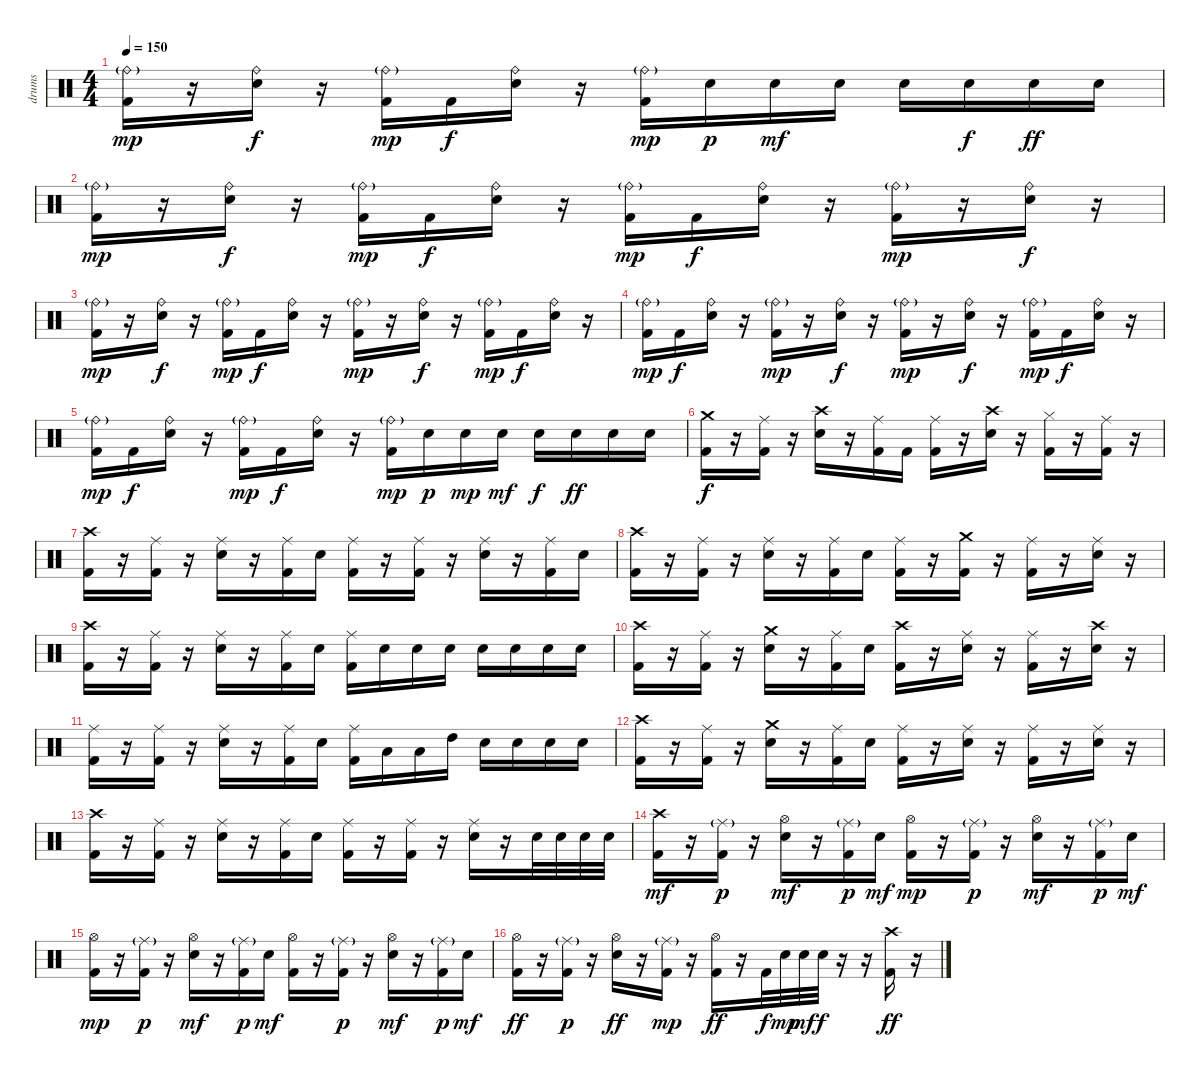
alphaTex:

\track ("drums" "drums") {instrument percussion}
\staff {score}
\articulation defaults
\ts (4 4)
\tempo 150
\clef neutral
\ks c
("Ride (bell)"{g} "Kick (hit) 2").16{dy mp} r.16 ("Ride (bell)" "Electric Snare (hit)").16{dy f} r.16 ("Ride (bell)"{g} "Kick (hit) 2").16{dy mp} "Kick (hit) 2".16{dy f} ("Ride (bell)" "Electric Snare (hit)").16 r.16 ("Ride (bell)"{g} "Kick (hit) 2").16{dy mp} "Electric Snare (hit)".16{dy p} "Electric Snare (hit)".16{dy mf} "Electric Snare (hit)".16 "Electric Snare (hit)".16 "Electric Snare (hit)".16{dy f} "Electric Snare (hit)".16{dy ff} "Electric Snare (hit)".16 |
("Ride (bell)"{g} "Kick (hit) 2").16{dy mp} r.16 ("Ride (bell)" "Electric Snare (hit)").16{dy f} r.16 ("Ride (bell)"{g} "Kick (hit) 2").16{dy mp} "Kick (hit) 2".16{dy f} ("Ride (bell)" "Electric Snare (hit)").16 r.16 ("Ride (bell)"{g} "Kick (hit) 2").16{dy mp} "Kick (hit) 2".16{dy f} ("Ride (bell)" "Electric Snare (hit)").16 r.16 ("Ride (bell)"{g} "Kick (hit) 2").16{dy mp} r.16 ("Ride (bell)" "Electric Snare (hit)").16{dy f} r.16 |
("Ride (bell)"{g} "Kick (hit) 2").16{dy mp} r.16 ("Ride (bell)" "Electric Snare (hit)").16{dy f} r.16 ("Ride (bell)"{g} "Kick (hit) 2").16{dy mp} "Kick (hit) 2".16{dy f} ("Ride (bell)" "Electric Snare (hit)").16 r.16 ("Ride (bell)"{g} "Kick (hit) 2").16{dy mp} r.16 ("Ride (bell)" "Electric Snare (hit)").16{dy f} r.16 ("Ride (bell)"{g} "Kick (hit) 2").16{dy mp} "Kick (hit) 2".16{dy f} ("Ride (bell)" "Electric Snare (hit)").16 r.16 |
("Ride (bell)"{g} "Kick (hit) 2").16{dy mp} "Kick (hit) 2".16{dy f} ("Ride (bell)" "Electric Snare (hit)").16 r.16 ("Ride (bell)"{g} "Kick (hit) 2").16{dy mp} r.16 ("Ride (bell)" "Electric Snare (hit)").16{dy f} r.16 ("Ride (bell)"{g} "Kick (hit) 2").16{dy mp} r.16 ("Ride (bell)" "Electric Snare (hit)").16{dy f} r.16 ("Ride (bell)"{g} "Kick (hit) 2").16{dy mp} "Kick (hit) 2".16{dy f} ("Ride (bell)" "Electric Snare (hit)").16 r.16 |
("Ride (bell)"{g} "Kick (hit) 2").16{dy mp} "Kick (hit) 2".16{dy f} ("Ride (bell)" "Electric Snare (hit)").16 r.16 ("Ride (bell)"{g} "Kick (hit) 2").16{dy mp} "Kick (hit) 2".16{dy f} ("Ride (bell)" "Electric Snare (hit)").16 r.16 ("Ride (bell)"{g} "Kick (hit) 2").16{dy mp} "Electric Snare (hit)".16{dy p} "Electric Snare (hit)".16{dy mp} "Electric Snare (hit)".16{dy mf} "Electric Snare (hit)".16{dy f} "Electric Snare (hit)".16{dy ff} "Electric Snare (hit)".16 "Electric Snare (hit)".16 |
("Crash medium (hit)" "Kick (hit) 2").16{dy f} r.16 ("Ride (middle)" "Kick (hit) 2").16 r.16 ("Crash high (hit)" "Electric Snare (hit)").16 r.16 ("Ride (middle)" "Kick (hit) 2").16 "Kick (hit) 2".16 ("Ride (middle)" "Kick (hit) 2").16 r.16 ("Crash high (hit)" "Electric Snare (hit)").16 r.16 ("Hi-Hat (closed)" "Kick (hit) 2").16 r.16 ("Ride (middle)" "Kick (hit) 2").16 r.16 |
("Crash high (hit)" "Kick (hit) 2").16 r.16 ("Ride (middle)" "Kick (hit) 2").16 r.16 ("Ride (middle)" "Electric Snare (hit)").16 r.16 ("Ride (middle)" "Kick (hit) 2").16 "Electric Snare (hit)".16 ("Ride (middle)" "Kick (hit) 2").16 r.16 ("Ride (middle)" "Kick (hit) 2").16 r.16 ("Ride (middle)" "Electric Snare (hit)").16 r.16 ("Ride (middle)" "Kick (hit) 2").16 "Electric Snare (hit)".16 |
("Crash high (hit)" "Kick (hit) 2").16 r.16 ("Ride (middle)" "Kick (hit) 2").16 r.16 ("Ride (middle)" "Electric Snare (hit)").16 r.16 ("Ride (middle)" "Kick (hit) 2").16 "Electric Snare (hit)".16 ("Ride (middle)" "Kick (hit) 2").16 r.16 ("Crash medium (hit)" "Kick (hit) 2").16 r.16 ("Ride (middle)" "Kick (hit) 2").16 r.16 ("Ride (middle)" "Electric Snare (hit)").16 r.16 |
("Crash high (hit)" "Kick (hit) 2").16 r.16 ("Ride (middle)" "Kick (hit) 2").16 r.16 ("Ride (middle)" "Electric Snare (hit)").16 r.16 ("Ride (middle)" "Kick (hit) 2").16 "Electric Snare (hit)".16 ("Ride (middle)" "Kick (hit) 2").16 "Electric Snare (hit)".16 "Electric Snare (hit)".16 "Electric Snare (hit)".16 "Electric Snare (hit)".16 "Electric Snare (hit)".16 "Electric Snare (hit)".16 "Electric Snare (hit)".16 |
("Crash high (hit)" "Kick (hit) 2").16 r.16 ("Ride (middle)" "Kick (hit) 2").16 r.16 ("Crash medium (hit)" "Electric Snare (hit)").16 r.16 ("Ride (middle)" "Kick (hit) 2").16 "Electric Snare (hit)".16 ("Crash high (hit)" "Kick (hit) 2").16 r.16 ("Ride (middle)" "Electric Snare (hit)").16 r.16 ("Ride (middle)" "Kick (hit) 2").16 r.16 ("Crash high (hit)" "Electric Snare (hit)").16 r.16 |
("Ride (middle)" "Kick (hit) 2").16 r.16 ("Ride (middle)" "Kick (hit) 2").16 r.16 ("Ride (middle)" "Electric Snare (hit)").16 r.16 ("Ride (middle)" "Kick (hit) 2").16 "Electric Snare (hit)".16 ("Ride (middle)" "Kick (hit) 2").16 "Low Floor Tom (hit)".16 "Low Tom (hit)".16 "High Tom (hit)".16 "Electric Snare (hit)".16 "Electric Snare (hit)".16 "Electric Snare (hit)".16 "Electric Snare (hit)".16 |
("Crash high (hit)" "Kick (hit) 2").16 r.16 ("Ride (middle)" "Kick (hit) 2").16 r.16 ("Crash medium (hit)" "Electric Snare (hit)").16 r.16 ("Ride (middle)" "Kick (hit) 2").16 "Electric Snare (hit)".16 ("Ride (middle)" "Kick (hit) 2").16 r.16 ("Ride (middle)" "Electric Snare (hit)").16 r.16 ("Ride (middle)" "Kick (hit) 2").16 r.16 ("Ride (middle)" "Electric Snare (hit)").16 r.16 |
("Crash high (hit)" "Kick (hit) 2").16 r.16 ("Ride (middle)" "Kick (hit) 2").16 r.16 ("Ride (middle)" "Electric Snare (hit)").16 r.16 ("Ride (middle)" "Kick (hit) 2").16 "Electric Snare (hit)".16 ("Ride (middle)" "Kick (hit) 2").16 r.16 ("Ride (middle)" "Kick (hit) 2").16 r.16 ("Ride (middle)" "Electric Snare (hit)").16 r.16 "Electric Snare (hit)".32 "Electric Snare (hit)".32 "Electric Snare (hit)".32 "Electric Snare (hit)".32 |
("Crash high (hit)" "Kick (hit) 2").16{dy mf} r.16 ("Ride (middle)"{g} "Kick (hit) 2").16{dy p} r.16 ("Hi-Hat (open)" "Electric Snare (hit)").16{dy mf} r.16 ("Ride (middle)"{g} "Kick (hit) 2").16{dy p} "Electric Snare (hit)".16{dy mf} ("Hi-Hat (open)" "Kick (hit) 2").16{dy mp} r.16 ("Ride (middle)"{g} "Kick (hit) 2").16{dy p} r.16 ("Hi-Hat (open)" "Electric Snare (hit)").16{dy mf} r.16 ("Ride (middle)"{g} "Kick (hit) 2").16{dy p} "Electric Snare (hit)".16{dy mf} |
("Hi-Hat (open)" "Kick (hit) 2").16{dy mp} r.16 ("Ride (middle)"{g} "Kick (hit) 2").16{dy p} r.16 ("Hi-Hat (open)" "Electric Snare (hit)").16{dy mf} r.16 ("Ride (middle)"{g} "Kick (hit) 2").16{dy p} "Electric Snare (hit)".16{dy mf} ("Hi-Hat (open)" "Kick (hit) 2").16 r.16 ("Ride (middle)"{g} "Kick (hit) 2").16{dy p} r.16 ("Hi-Hat (open)" "Electric Snare (hit)").16{dy mf} r.16 ("Ride (middle)"{g} "Kick (hit) 2").16{dy p} "Electric Snare (hit)".16{dy mf} |
("Hi-Hat (open)" "Kick (hit) 2").16{dy ff} r.16 ("Ride (middle)"{g} "Kick (hit) 2").16{dy p} r.16 ("Hi-Hat (open)" "Electric Snare (hit)").16{dy ff} r.16 ("Ride (middle)"{g} "Kick (hit) 2").16{dy mp} r.16 ("Hi-Hat (open)" "Kick (hit) 2").16{dy ff} r.16 "Kick (hit) 2".32{dy f} "Electric Snare (hit)".32{dy mp} "Electric Snare (hit)".32{dy mf} "Electric Snare (hit)".32{dy f} r.16 r.16 ("Crash high (hit)" "Kick (hit) 2").16{dy ff} r.16
